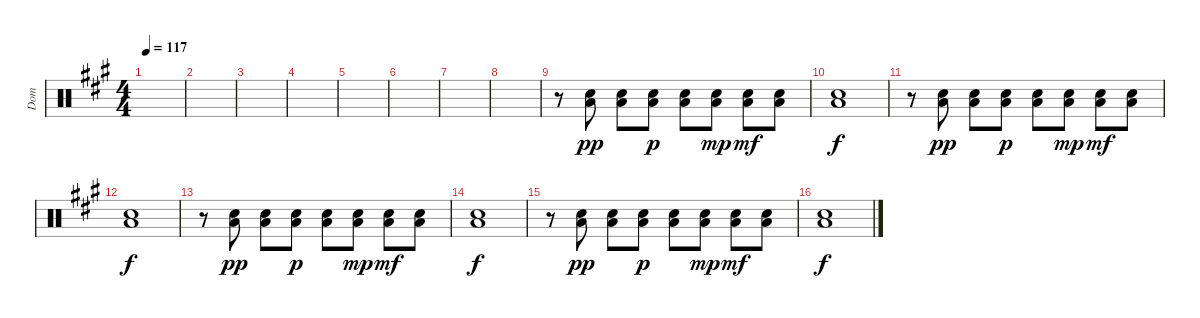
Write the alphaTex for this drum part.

\track ("Dom" "Dom") {instrument percussion}
\staff {score}
\articulation defaults
\ts (4 4)
\tempo 117
\clef neutral
\ks a
|
|
|
|
|
|
|
|
r.8 ("Low Floor Tom (hit)" "Snare (hit) 2").8{dy pp} ("Low Floor Tom (hit)" "Snare (hit) 2").8 ("Low Floor Tom (hit)" "Snare (hit) 2").8{dy p} ("Low Floor Tom (hit)" "Snare (hit) 2").8 ("Low Floor Tom (hit)" "Snare (hit) 2").8{dy mp} ("Low Floor Tom (hit)" "Snare (hit) 2").8{dy mf} ("Low Floor Tom (hit)" "Snare (hit) 2").8 |
("Low Floor Tom (hit)" "Snare (hit) 2").1{dy f} |
r.8 ("Low Floor Tom (hit)" "Snare (hit) 2").8{dy pp} ("Low Floor Tom (hit)" "Snare (hit) 2").8 ("Low Floor Tom (hit)" "Snare (hit) 2").8{dy p} ("Low Floor Tom (hit)" "Snare (hit) 2").8 ("Low Floor Tom (hit)" "Snare (hit) 2").8{dy mp} ("Low Floor Tom (hit)" "Snare (hit) 2").8{dy mf} ("Low Floor Tom (hit)" "Snare (hit) 2").8 |
("Low Floor Tom (hit)" "Snare (hit) 2").1{dy f} |
r.8 ("Low Floor Tom (hit)" "Snare (hit) 2").8{dy pp} ("Low Floor Tom (hit)" "Snare (hit) 2").8 ("Low Floor Tom (hit)" "Snare (hit) 2").8{dy p} ("Low Floor Tom (hit)" "Snare (hit) 2").8 ("Low Floor Tom (hit)" "Snare (hit) 2").8{dy mp} ("Low Floor Tom (hit)" "Snare (hit) 2").8{dy mf} ("Low Floor Tom (hit)" "Snare (hit) 2").8 |
("Low Floor Tom (hit)" "Snare (hit) 2").1{dy f} |
r.8 ("Low Floor Tom (hit)" "Snare (hit) 2").8{dy pp} ("Low Floor Tom (hit)" "Snare (hit) 2").8 ("Low Floor Tom (hit)" "Snare (hit) 2").8{dy p} ("Low Floor Tom (hit)" "Snare (hit) 2").8 ("Low Floor Tom (hit)" "Snare (hit) 2").8{dy mp} ("Low Floor Tom (hit)" "Snare (hit) 2").8{dy mf} ("Low Floor Tom (hit)" "Snare (hit) 2").8 |
("Low Floor Tom (hit)" "Snare (hit) 2").1{dy f}
